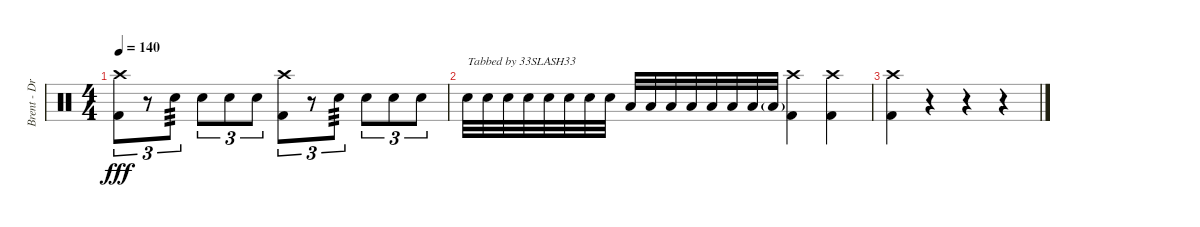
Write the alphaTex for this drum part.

\track ("Brent - Drums" "Brent - Dr") {instrument percussion}
\staff {score}
\articulation defaults
\ts (4 4)
\tempo 140
\clef neutral
\ks c
("Crash high (hit)" "Kick (hit) 2").8{tu (3 2) dy fff} r.8{tu (3 2)} "Snare (hit) 2".8{tu (3 2) tp 3} "Snare (hit) 2".8{tu (3 2)} "Snare (hit) 2".8{tu (3 2)} "Snare (hit) 2".8{tu (3 2)} ("Crash high (hit)" "Kick (hit) 2").8{tu (3 2)} r.8{tu (3 2)} "Snare (hit) 2".8{tu (3 2) tp 3} "Snare (hit) 2".8{tu (3 2)} "Snare (hit) 2".8{tu (3 2)} "Snare (hit) 2".8{tu (3 2)} |
"Snare (hit) 2".32{txt "Tabbed by 33SLASH33"} "Snare (hit) 2".32 "Snare (hit) 2".32 "Snare (hit) 2".32 "Snare (hit) 2".32 "Snare (hit) 2".32 "Snare (hit) 2".32 "Snare (hit) 2".32 "Low Tom (hit)".32 "Low Tom (hit)".32 "Low Tom (hit)".32 "Low Tom (hit)".32 "Low Tom (hit)".32 "Low Tom (hit)".32 "Low Tom (hit)".32 "Low Tom (hit)"{g}.32 ("Crash high (hit)" "Kick (hit) 2").4 ("Crash high (hit)" "Kick (hit) 2").4 |
("Crash high (hit)" "Kick (hit) 2").4 r.4 r.4 r.4
